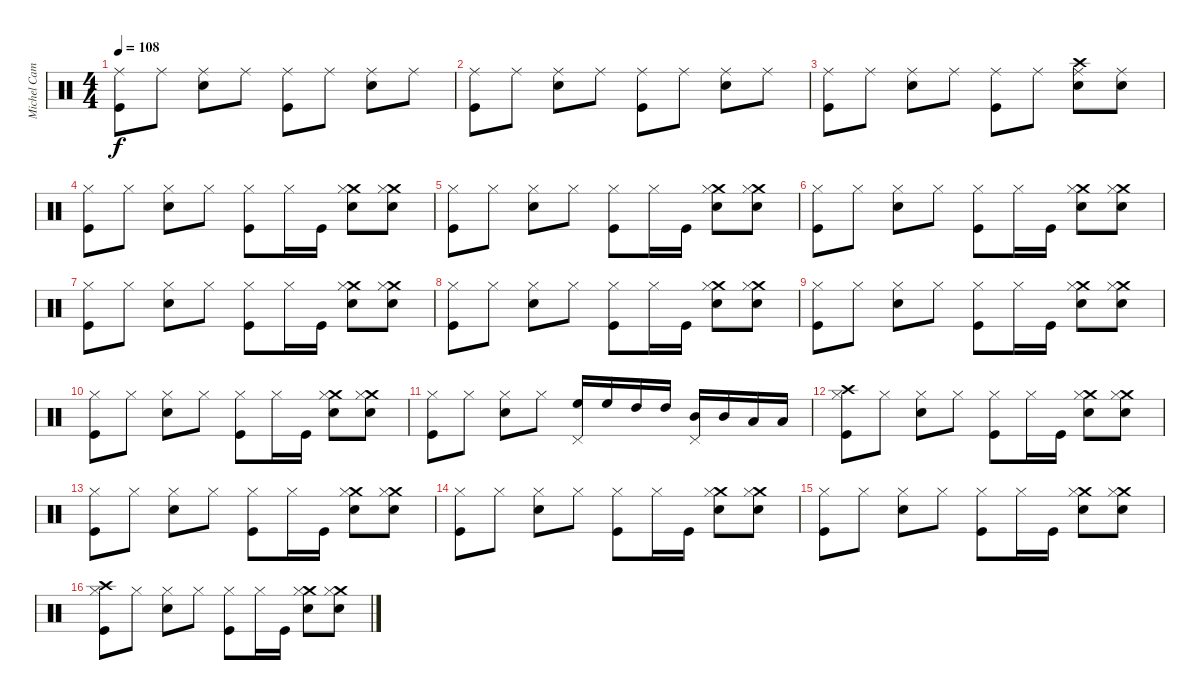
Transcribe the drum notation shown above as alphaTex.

\track ("Michel Camiade" "Michel Cam") {instrument percussion}
\staff {score}
\articulation defaults
\ts (4 4)
\tempo 108
\clef neutral
\ks c
("Ride (middle)" "Kick (hit)").8{dy f} "Ride (middle)".8 ("Ride (middle)" "Snare (hit) 2").8 "Ride (middle)".8 ("Ride (middle)" "Kick (hit)").8 "Ride (middle)".8 ("Ride (middle)" "Snare (hit) 2").8 "Ride (middle)".8 |
("Ride (middle)" "Kick (hit)").8 "Ride (middle)".8 ("Ride (middle)" "Snare (hit) 2").8 "Ride (middle)".8 ("Ride (middle)" "Kick (hit)").8 "Ride (middle)".8 ("Ride (middle)" "Snare (hit) 2").8 "Ride (middle)".8 |
("Ride (middle)" "Kick (hit)").8 "Ride (middle)".8 ("Ride (middle)" "Snare (hit) 2").8 "Ride (middle)".8 ("Ride (middle)" "Kick (hit)").8 "Ride (middle)".8 ("Crash high (hit)" "Ride (middle)" "Snare (hit) 2").8 ("Ride (middle)" "Snare (hit) 2").8 |
("Hi-Hat (closed)" "Kick (hit)").8 "Hi-Hat (closed)".8 ("Hi-Hat (closed)" "Snare (hit) 2").8 "Hi-Hat (closed)".8 ("Hi-Hat (closed)" "Kick (hit)").8 "Hi-Hat (closed)".16 "Kick (hit)".16 ("Crash medium (hit)" "Hi-Hat (closed)" "Snare (hit) 2").8 ("Crash medium (hit)" "Hi-Hat (closed)" "Snare (hit) 2").8 |
("Hi-Hat (closed)" "Kick (hit)").8 "Hi-Hat (closed)".8 ("Hi-Hat (closed)" "Snare (hit) 2").8 "Hi-Hat (closed)".8 ("Hi-Hat (closed)" "Kick (hit)").8 "Hi-Hat (closed)".16 "Kick (hit)".16 ("Crash medium (hit)" "Hi-Hat (closed)" "Snare (hit) 2").8 ("Crash medium (hit)" "Hi-Hat (closed)" "Snare (hit) 2").8 |
("Hi-Hat (closed)" "Kick (hit)").8 "Hi-Hat (closed)".8 ("Hi-Hat (closed)" "Snare (hit) 2").8 "Hi-Hat (closed)".8 ("Hi-Hat (closed)" "Kick (hit)").8 "Hi-Hat (closed)".16 "Kick (hit)".16 ("Crash medium (hit)" "Hi-Hat (closed)" "Snare (hit) 2").8 ("Crash medium (hit)" "Hi-Hat (closed)" "Snare (hit) 2").8 |
("Hi-Hat (closed)" "Kick (hit)").8 "Hi-Hat (closed)".8 ("Hi-Hat (closed)" "Snare (hit) 2").8 "Hi-Hat (closed)".8 ("Hi-Hat (closed)" "Kick (hit)").8 "Hi-Hat (closed)".16 "Kick (hit)".16 ("Crash medium (hit)" "Hi-Hat (closed)" "Snare (hit) 2").8 ("Crash medium (hit)" "Hi-Hat (closed)" "Snare (hit) 2").8 |
("Hi-Hat (closed)" "Kick (hit)").8 "Hi-Hat (closed)".8 ("Hi-Hat (closed)" "Snare (hit) 2").8 "Hi-Hat (closed)".8 ("Hi-Hat (closed)" "Kick (hit)").8 "Hi-Hat (closed)".16 "Kick (hit)".16 ("Crash medium (hit)" "Hi-Hat (closed)" "Snare (hit) 2").8 ("Crash medium (hit)" "Hi-Hat (closed)" "Snare (hit) 2").8 |
("Hi-Hat (closed)" "Kick (hit)").8 "Hi-Hat (closed)".8 ("Hi-Hat (closed)" "Snare (hit) 2").8 "Hi-Hat (closed)".8 ("Hi-Hat (closed)" "Kick (hit)").8 "Hi-Hat (closed)".16 "Kick (hit)".16 ("Crash medium (hit)" "Hi-Hat (closed)" "Snare (hit) 2").8 ("Crash medium (hit)" "Hi-Hat (closed)" "Snare (hit) 2").8 |
("Hi-Hat (closed)" "Kick (hit)").8 "Hi-Hat (closed)".8 ("Hi-Hat (closed)" "Snare (hit) 2").8 "Hi-Hat (closed)".8 ("Hi-Hat (closed)" "Kick (hit)").8 "Hi-Hat (closed)".16 "Kick (hit)".16 ("Crash medium (hit)" "Hi-Hat (closed)" "Snare (hit) 2").8 ("Crash medium (hit)" "Hi-Hat (closed)" "Snare (hit) 2").8 |
("Hi-Hat (closed)" "Kick (hit)").8 "Hi-Hat (closed)".8 ("Hi-Hat (closed)" "Snare (hit) 2").8 "Hi-Hat (closed)".8 ("High Floor Tom (hit)" "Pedal Hi-Hat (hit)").16 "High Floor Tom (hit)".16 "High Tom (hit)".16 "High Tom (hit)".16 ("Mid Tom (hit)" "Pedal Hi-Hat (hit)").16 "Mid Tom (hit)".16 "Low Tom (hit)".16 "Low Tom (hit)".16 |
("Crash high (hit)" "Hi-Hat (closed)" "Kick (hit)").8 "Hi-Hat (closed)".8 ("Hi-Hat (closed)" "Snare (hit) 2").8 "Hi-Hat (closed)".8 ("Hi-Hat (closed)" "Kick (hit)").8 "Hi-Hat (closed)".16 "Kick (hit)".16 ("Crash medium (hit)" "Hi-Hat (closed)" "Snare (hit) 2").8 ("Crash medium (hit)" "Hi-Hat (closed)" "Snare (hit) 2").8 |
("Hi-Hat (closed)" "Kick (hit)").8 "Hi-Hat (closed)".8 ("Hi-Hat (closed)" "Snare (hit) 2").8 "Hi-Hat (closed)".8 ("Hi-Hat (closed)" "Kick (hit)").8 "Hi-Hat (closed)".16 "Kick (hit)".16 ("Crash medium (hit)" "Hi-Hat (closed)" "Snare (hit) 2").8 ("Crash medium (hit)" "Hi-Hat (closed)" "Snare (hit) 2").8 |
("Hi-Hat (closed)" "Kick (hit)").8 "Hi-Hat (closed)".8 ("Hi-Hat (closed)" "Snare (hit) 2").8 "Hi-Hat (closed)".8 ("Hi-Hat (closed)" "Kick (hit)").8 "Hi-Hat (closed)".16 "Kick (hit)".16 ("Crash medium (hit)" "Hi-Hat (closed)" "Snare (hit) 2").8 ("Crash medium (hit)" "Hi-Hat (closed)" "Snare (hit) 2").8 |
("Hi-Hat (closed)" "Kick (hit)").8 "Hi-Hat (closed)".8 ("Hi-Hat (closed)" "Snare (hit) 2").8 "Hi-Hat (closed)".8 ("Hi-Hat (closed)" "Kick (hit)").8 "Hi-Hat (closed)".16 "Kick (hit)".16 ("Crash medium (hit)" "Hi-Hat (closed)" "Snare (hit) 2").8 ("Crash medium (hit)" "Hi-Hat (closed)" "Snare (hit) 2").8 |
("Crash high (hit)" "Hi-Hat (closed)" "Kick (hit)").8 "Hi-Hat (closed)".8 ("Hi-Hat (closed)" "Snare (hit) 2").8 "Hi-Hat (closed)".8 ("Hi-Hat (closed)" "Kick (hit)").8 "Hi-Hat (closed)".16 "Kick (hit)".16 ("Crash medium (hit)" "Hi-Hat (closed)" "Snare (hit) 2").8 ("Crash medium (hit)" "Hi-Hat (closed)" "Snare (hit) 2").8
